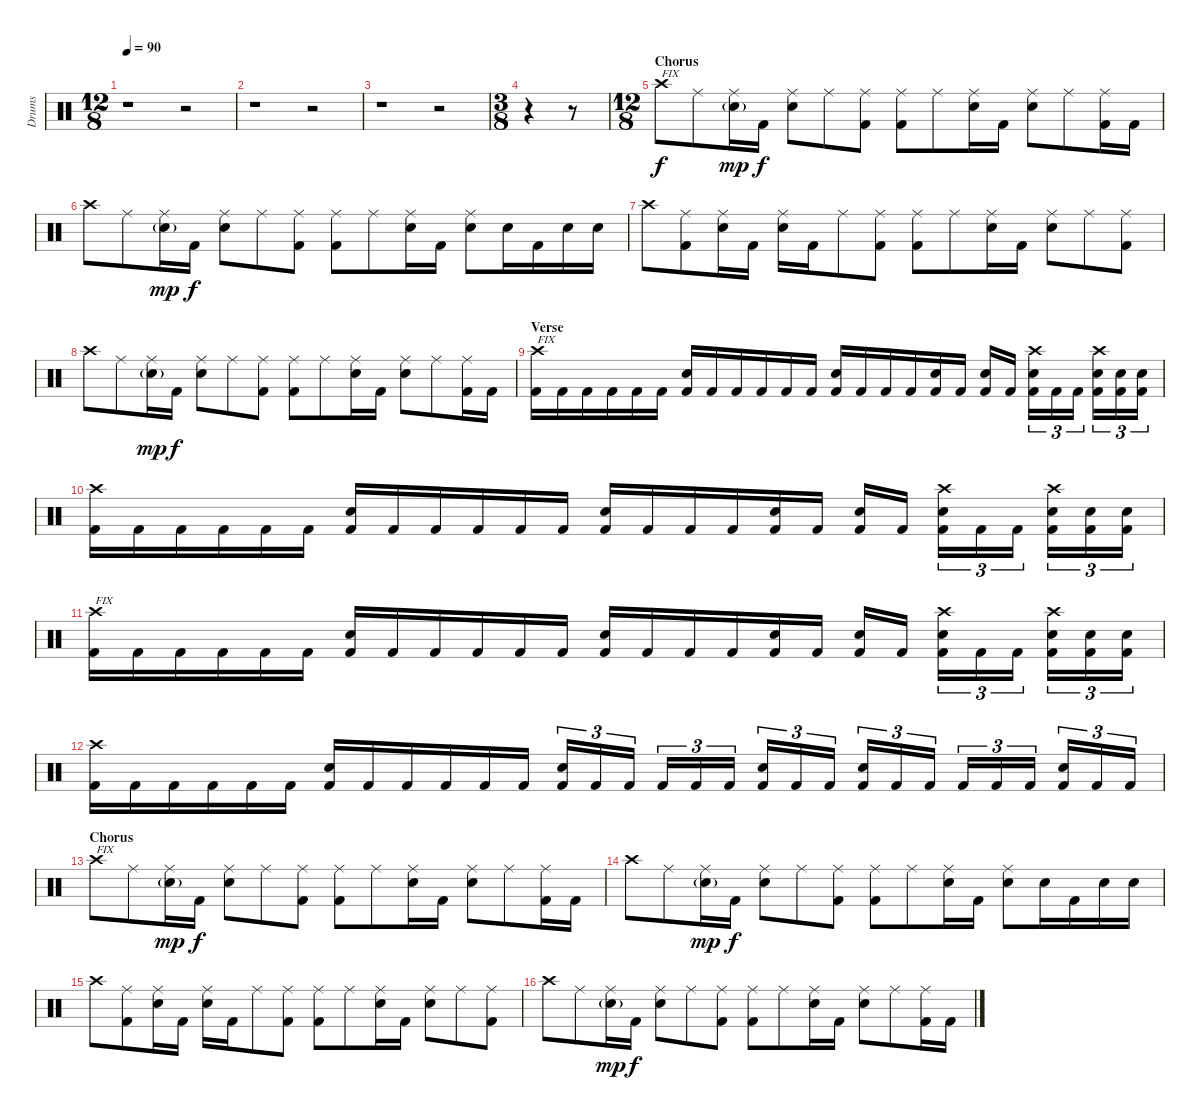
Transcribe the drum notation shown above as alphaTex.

\track ("Drums" "Drums") {instrument percussion}
\staff {score}
\articulation defaults
\ts (12 8)
\tempo 90
\clef neutral
\ks c
r.1{dy f} r.2 |
r.1 r.2 |
r.1 r.2 |
\ts (3 8)
r.4 r.8 |
\ts (12 8)
\section ("" "Chorus")
"Crash high (hit)".8{txt "FIX"} "Ride (middle)".8 ("Ride (middle)" "Electric Snare (hit)"{g}).16{dy mp} "Kick (hit) 2".16{dy f} ("Ride (middle)" "Electric Snare (hit)").8 "Ride (middle)".8 ("Ride (middle)" "Kick (hit) 2").8 ("Ride (middle)" "Kick (hit) 2").8 "Ride (middle)".8 ("Ride (middle)" "Electric Snare (hit)").16 "Kick (hit) 2".16 ("Ride (middle)" "Electric Snare (hit)").8 "Ride (middle)".8 ("Ride (middle)" "Kick (hit) 2").16 "Kick (hit) 2".16 |
"Crash high (hit)".8 "Ride (middle)".8 ("Ride (middle)" "Electric Snare (hit)"{g}).16{dy mp} "Kick (hit) 2".16{dy f} ("Ride (middle)" "Electric Snare (hit)").8 "Ride (middle)".8 ("Ride (middle)" "Kick (hit) 2").8 ("Ride (middle)" "Kick (hit) 2").8 "Ride (middle)".8 ("Ride (middle)" "Electric Snare (hit)").16 "Kick (hit) 2".16 ("Ride (middle)" "Electric Snare (hit)").8 "Electric Snare (hit)".16 "Kick (hit) 2".16 "Electric Snare (hit)".16 "Electric Snare (hit)".16 |
"Crash high (hit)".8 ("Ride (middle)" "Kick (hit) 2").8 ("Ride (middle)" "Electric Snare (hit)").16 "Kick (hit) 2".16 ("Ride (middle)" "Electric Snare (hit)").16 "Kick (hit) 2".16 "Ride (middle)".8 ("Ride (middle)" "Kick (hit) 2").8 ("Ride (middle)" "Kick (hit) 2").8 "Ride (middle)".8 ("Ride (middle)" "Electric Snare (hit)").16 "Kick (hit) 2".16 ("Ride (middle)" "Electric Snare (hit)").8 "Ride (middle)".8 ("Ride (middle)" "Kick (hit) 2").8 |
"Crash high (hit)".8 "Ride (middle)".8 ("Ride (middle)" "Electric Snare (hit)"{g}).16{dy mp} "Kick (hit) 2".16{dy f} ("Ride (middle)" "Electric Snare (hit)").8 "Ride (middle)".8 ("Ride (middle)" "Kick (hit) 2").8 ("Ride (middle)" "Kick (hit) 2").8 "Ride (middle)".8 ("Ride (middle)" "Electric Snare (hit)").16 "Kick (hit) 2".16 ("Ride (middle)" "Electric Snare (hit)").8 "Ride (middle)".8 ("Ride (middle)" "Kick (hit) 2").16 "Kick (hit) 2".16 |
\section ("" "Verse")
("Crash high (hit)" "Kick (hit) 2").16{txt "FIX"} "Kick (hit) 2".16 "Kick (hit) 2".16 "Kick (hit) 2".16 "Kick (hit) 2".16 "Kick (hit) 2".16 ("Electric Snare (hit)" "Kick (hit) 2").16 "Kick (hit) 2".16 "Kick (hit) 2".16 "Kick (hit) 2".16 "Kick (hit) 2".16 "Kick (hit) 2".16 ("Electric Snare (hit)" "Kick (hit) 2").16 "Kick (hit) 2".16 "Kick (hit) 2".16 "Kick (hit) 2".16 ("Electric Snare (hit)" "Kick (hit) 2").16 "Kick (hit) 2".16 ("Electric Snare (hit)" "Kick (hit) 2").16 "Kick (hit) 2".16 ("Crash high (hit)" "Electric Snare (hit)" "Kick (hit) 2").16{tu (3 2)} "Kick (hit) 2".16{tu (3 2)} "Kick (hit) 2".16{tu (3 2)} ("Crash high (hit)" "Electric Snare (hit)" "Kick (hit) 2").16{tu (3 2)} ("Electric Snare (hit)" "Kick (hit) 2").16{tu (3 2)} ("Electric Snare (hit)" "Kick (hit) 2").16{tu (3 2)} |
("Crash high (hit)" "Kick (hit) 2").16 "Kick (hit) 2".16 "Kick (hit) 2".16 "Kick (hit) 2".16 "Kick (hit) 2".16 "Kick (hit) 2".16 ("Electric Snare (hit)" "Kick (hit) 2").16 "Kick (hit) 2".16 "Kick (hit) 2".16 "Kick (hit) 2".16 "Kick (hit) 2".16 "Kick (hit) 2".16 ("Electric Snare (hit)" "Kick (hit) 2").16 "Kick (hit) 2".16 "Kick (hit) 2".16 "Kick (hit) 2".16 ("Electric Snare (hit)" "Kick (hit) 2").16 "Kick (hit) 2".16 ("Electric Snare (hit)" "Kick (hit) 2").16 "Kick (hit) 2".16 ("Crash high (hit)" "Electric Snare (hit)" "Kick (hit) 2").16{tu (3 2)} "Kick (hit) 2".16{tu (3 2)} "Kick (hit) 2".16{tu (3 2)} ("Crash high (hit)" "Electric Snare (hit)" "Kick (hit) 2").16{tu (3 2)} ("Electric Snare (hit)" "Kick (hit) 2").16{tu (3 2)} ("Electric Snare (hit)" "Kick (hit) 2").16{tu (3 2)} |
("Crash high (hit)" "Kick (hit) 2").16{txt "FIX"} "Kick (hit) 2".16 "Kick (hit) 2".16 "Kick (hit) 2".16 "Kick (hit) 2".16 "Kick (hit) 2".16 ("Electric Snare (hit)" "Kick (hit) 2").16 "Kick (hit) 2".16 "Kick (hit) 2".16 "Kick (hit) 2".16 "Kick (hit) 2".16 "Kick (hit) 2".16 ("Electric Snare (hit)" "Kick (hit) 2").16 "Kick (hit) 2".16 "Kick (hit) 2".16 "Kick (hit) 2".16 ("Electric Snare (hit)" "Kick (hit) 2").16 "Kick (hit) 2".16 ("Electric Snare (hit)" "Kick (hit) 2").16 "Kick (hit) 2".16 ("Crash high (hit)" "Electric Snare (hit)" "Kick (hit) 2").16{tu (3 2)} "Kick (hit) 2".16{tu (3 2)} "Kick (hit) 2".16{tu (3 2)} ("Crash high (hit)" "Electric Snare (hit)" "Kick (hit) 2").16{tu (3 2)} ("Electric Snare (hit)" "Kick (hit) 2").16{tu (3 2)} ("Electric Snare (hit)" "Kick (hit) 2").16{tu (3 2)} |
("Crash high (hit)" "Kick (hit) 2").16 "Kick (hit) 2".16 "Kick (hit) 2".16 "Kick (hit) 2".16 "Kick (hit) 2".16 "Kick (hit) 2".16 ("Electric Snare (hit)" "Kick (hit) 2").16 "Kick (hit) 2".16 "Kick (hit) 2".16 "Kick (hit) 2".16 "Kick (hit) 2".16 "Kick (hit) 2".16 ("Electric Snare (hit)" "Kick (hit) 2").16{tu (3 2)} "Kick (hit) 2".16{tu (3 2)} "Kick (hit) 2".16{tu (3 2)} "Kick (hit) 2".16{tu (3 2)} "Kick (hit) 2".16{tu (3 2)} "Kick (hit) 2".16{tu (3 2)} ("Electric Snare (hit)" "Kick (hit) 2").16{tu (3 2)} "Kick (hit) 2".16{tu (3 2)} "Kick (hit) 2".16{tu (3 2)} ("Electric Snare (hit)" "Kick (hit) 2").16{tu (3 2)} "Kick (hit) 2".16{tu (3 2)} "Kick (hit) 2".16{tu (3 2)} "Kick (hit) 2".16{tu (3 2)} "Kick (hit) 2".16{tu (3 2)} "Kick (hit) 2".16{tu (3 2)} ("Electric Snare (hit)" "Kick (hit) 2").16{tu (3 2)} "Kick (hit) 2".16{tu (3 2)} "Kick (hit) 2".16{tu (3 2)} |
\section ("" "Chorus")
"Crash high (hit)".8{txt "FIX"} "Ride (middle)".8 ("Ride (middle)" "Electric Snare (hit)"{g}).16{dy mp} "Kick (hit) 2".16{dy f} ("Ride (middle)" "Electric Snare (hit)").8 "Ride (middle)".8 ("Ride (middle)" "Kick (hit) 2").8 ("Ride (middle)" "Kick (hit) 2").8 "Ride (middle)".8 ("Ride (middle)" "Electric Snare (hit)").16 "Kick (hit) 2".16 ("Ride (middle)" "Electric Snare (hit)").8 "Ride (middle)".8 ("Ride (middle)" "Kick (hit) 2").16 "Kick (hit) 2".16 |
"Crash high (hit)".8 "Ride (middle)".8 ("Ride (middle)" "Electric Snare (hit)"{g}).16{dy mp} "Kick (hit) 2".16{dy f} ("Ride (middle)" "Electric Snare (hit)").8 "Ride (middle)".8 ("Ride (middle)" "Kick (hit) 2").8 ("Ride (middle)" "Kick (hit) 2").8 "Ride (middle)".8 ("Ride (middle)" "Electric Snare (hit)").16 "Kick (hit) 2".16 ("Ride (middle)" "Electric Snare (hit)").8 "Electric Snare (hit)".16 "Kick (hit) 2".16 "Electric Snare (hit)".16 "Electric Snare (hit)".16 |
"Crash high (hit)".8 ("Ride (middle)" "Kick (hit) 2").8 ("Ride (middle)" "Electric Snare (hit)").16 "Kick (hit) 2".16 ("Ride (middle)" "Electric Snare (hit)").16 "Kick (hit) 2".16 "Ride (middle)".8 ("Ride (middle)" "Kick (hit) 2").8 ("Ride (middle)" "Kick (hit) 2").8 "Ride (middle)".8 ("Ride (middle)" "Electric Snare (hit)").16 "Kick (hit) 2".16 ("Ride (middle)" "Electric Snare (hit)").8 "Ride (middle)".8 ("Ride (middle)" "Kick (hit) 2").8 |
"Crash high (hit)".8 "Ride (middle)".8 ("Ride (middle)" "Electric Snare (hit)"{g}).16{dy mp} "Kick (hit) 2".16{dy f} ("Ride (middle)" "Electric Snare (hit)").8 "Ride (middle)".8 ("Ride (middle)" "Kick (hit) 2").8 ("Ride (middle)" "Kick (hit) 2").8 "Ride (middle)".8 ("Ride (middle)" "Electric Snare (hit)").16 "Kick (hit) 2".16 ("Ride (middle)" "Electric Snare (hit)").8 "Ride (middle)".8 ("Ride (middle)" "Kick (hit) 2").16 "Kick (hit) 2".16
